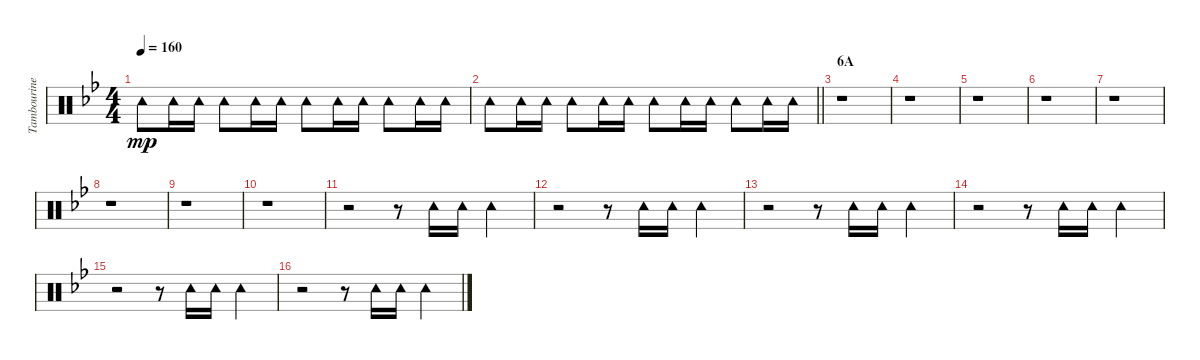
\track ("Tambourine" "Tambourine") {instrument percussion}
\staff {score}
\articulation defaults
\ts (4 4)
\tempo 160
\clef neutral
\ks bb "Tambourine (hit)".8{dy mp} "Tambourine (hit)".16 "Tambourine (hit)".16 "Tambourine (hit)".8 "Tambourine (hit)".16 "Tambourine (hit)".16 "Tambourine (hit)".8 "Tambourine (hit)".16 "Tambourine (hit)".16 "Tambourine (hit)".8 "Tambourine (hit)".16 "Tambourine (hit)".16
|
\barLineRight lightlight "Tambourine (hit)".8 "Tambourine (hit)".16 "Tambourine (hit)".16 "Tambourine (hit)".8 "Tambourine (hit)".16 "Tambourine (hit)".16 "Tambourine (hit)".8 "Tambourine (hit)".16 "Tambourine (hit)".16 "Tambourine (hit)".8 "Tambourine (hit)".16 "Tambourine (hit)".16
|
\section ("" "6A")
r.1 |
r.1 |
r.1 |
r.1 |
r.1 |
r.1 |
r.1 |
r.1 |
r.2 r.8 "Tambourine (hit)".16 "Tambourine (hit)".16 "Tambourine (hit)".4 |
r.2 r.8 "Tambourine (hit)".16 "Tambourine (hit)".16 "Tambourine (hit)".4 |
r.2 r.8 "Tambourine (hit)".16 "Tambourine (hit)".16 "Tambourine (hit)".4 |
r.2 r.8 "Tambourine (hit)".16 "Tambourine (hit)".16 "Tambourine (hit)".4 |
r.2 r.8 "Tambourine (hit)".16 "Tambourine (hit)".16 "Tambourine (hit)".4 |
r.2 r.8 "Tambourine (hit)".16 "Tambourine (hit)".16 "Tambourine (hit)".4
